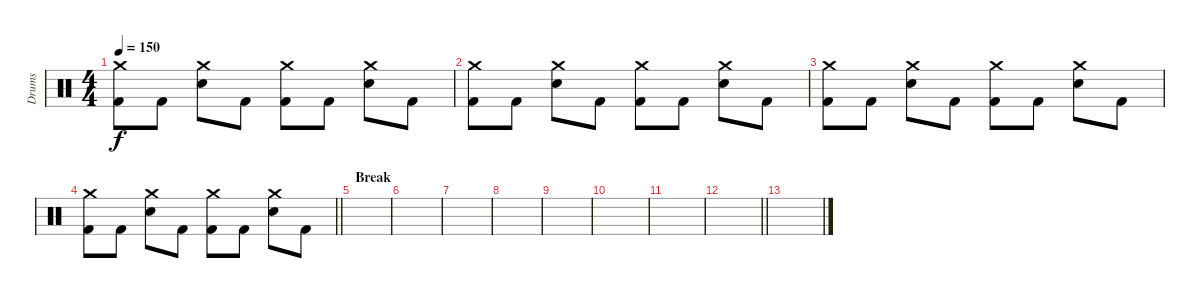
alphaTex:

\track ("Drums" "Drums") {instrument percussion}
\staff {score}
\articulation defaults
\ts (4 4)
\tempo 150
\clef neutral
\ks c
("Crash medium (hit)" "Kick (hit) 2").8{dy f} "Kick (hit) 2".8 ("Crash medium (hit)" "Electric Snare (hit)").8 "Kick (hit) 2".8 ("Crash medium (hit)" "Kick (hit) 2").8 "Kick (hit) 2".8 ("Crash medium (hit)" "Electric Snare (hit)").8 "Kick (hit) 2".8 |
("Crash medium (hit)" "Kick (hit) 2").8 "Kick (hit) 2".8 ("Crash medium (hit)" "Electric Snare (hit)").8 "Kick (hit) 2".8 ("Crash medium (hit)" "Kick (hit) 2").8 "Kick (hit) 2".8 ("Crash medium (hit)" "Electric Snare (hit)").8 "Kick (hit) 2".8 |
("Crash medium (hit)" "Kick (hit) 2").8 "Kick (hit) 2".8 ("Crash medium (hit)" "Electric Snare (hit)").8 "Kick (hit) 2".8 ("Crash medium (hit)" "Kick (hit) 2").8 "Kick (hit) 2".8 ("Crash medium (hit)" "Electric Snare (hit)").8 "Kick (hit) 2".8 |
\barLineRight lightlight
("Crash medium (hit)" "Kick (hit) 2").8 "Kick (hit) 2".8 ("Crash medium (hit)" "Electric Snare (hit)").8 "Kick (hit) 2".8 ("Crash medium (hit)" "Kick (hit) 2").8 "Kick (hit) 2".8 ("Crash medium (hit)" "Electric Snare (hit)").8 "Kick (hit) 2".8 |
\section ("" "Break")
|
|
|
|
|
|
|
\barLineRight lightlight
|
\section ("" "")
